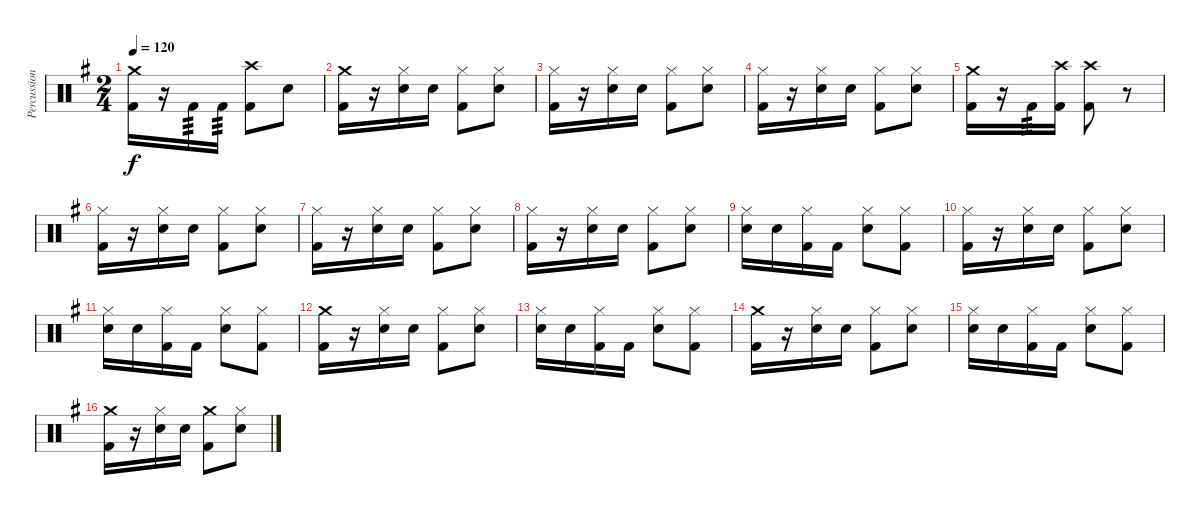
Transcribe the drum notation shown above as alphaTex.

\track ("Percussion" "Percussion") {instrument percussion}
\staff {score}
\articulation defaults
\ts (2 4)
\tempo 120
\clef neutral
\ks g
("Crash medium (hit)" "Kick (hit) 2").16{dy f} r.16 "Kick (hit) 2".16{tp 3} "Kick (hit) 2".16{tp 3} ("Crash high (hit)" "Kick (hit) 2").8 "Snare (hit) 2".8 |
("Crash medium (hit)" "Kick (hit) 2").16 r.16 ("Hi-Hat (closed)" "Snare (hit) 2").16 "Snare (hit) 2".16 ("Hi-Hat (closed)" "Kick (hit) 2").8 ("Hi-Hat (closed)" "Snare (hit) 2").8 |
("Hi-Hat (closed)" "Kick (hit) 2").16 r.16 ("Hi-Hat (closed)" "Snare (hit) 2").16 "Snare (hit) 2".16 ("Hi-Hat (closed)" "Kick (hit) 2").8 ("Hi-Hat (closed)" "Snare (hit) 2").8 |
("Hi-Hat (closed)" "Kick (hit) 2").16 r.16 ("Hi-Hat (closed)" "Snare (hit) 2").16 "Snare (hit) 2".16 ("Hi-Hat (closed)" "Kick (hit) 2").8 ("Hi-Hat (closed)" "Snare (hit) 2").8 |
("Crash medium (hit)" "Kick (hit) 2").16 r.16 "Kick (hit) 2".16{tp 3} ("Crash high (hit)" "Kick (hit) 2").16 ("Crash high (hit)" "Kick (hit) 2").8 r.8 |
("Hi-Hat (closed)" "Kick (hit) 2").16 r.16 ("Hi-Hat (closed)" "Snare (hit) 2").16 "Snare (hit) 2".16 ("Hi-Hat (closed)" "Kick (hit) 2").8 ("Hi-Hat (closed)" "Snare (hit) 2").8 |
("Hi-Hat (closed)" "Kick (hit) 2").16 r.16 ("Hi-Hat (closed)" "Snare (hit) 2").16 "Snare (hit) 2".16 ("Hi-Hat (closed)" "Kick (hit) 2").8 ("Hi-Hat (closed)" "Snare (hit) 2").8 |
("Hi-Hat (closed)" "Kick (hit) 2").16 r.16 ("Hi-Hat (closed)" "Snare (hit) 2").16 "Snare (hit) 2".16 ("Hi-Hat (closed)" "Kick (hit) 2").8 ("Hi-Hat (closed)" "Snare (hit) 2").8 |
("Hi-Hat (closed)" "Snare (hit) 2").16 "Snare (hit) 2".16 ("Hi-Hat (closed)" "Kick (hit) 2").16 "Kick (hit) 2".16 ("Hi-Hat (closed)" "Snare (hit) 2").8 ("Hi-Hat (closed)" "Kick (hit) 2").8 |
("Hi-Hat (closed)" "Kick (hit) 2").16 r.16 ("Hi-Hat (closed)" "Snare (hit) 2").16 "Snare (hit) 2".16 ("Hi-Hat (closed)" "Kick (hit) 2").8 ("Hi-Hat (closed)" "Snare (hit) 2").8 |
("Hi-Hat (closed)" "Snare (hit) 2").16 "Snare (hit) 2".16 ("Hi-Hat (closed)" "Kick (hit) 2").16 "Kick (hit) 2".16 ("Hi-Hat (closed)" "Snare (hit) 2").8 ("Hi-Hat (closed)" "Kick (hit) 2").8 |
("Crash medium (hit)" "Kick (hit) 2").16 r.16 ("Hi-Hat (closed)" "Snare (hit) 2").16 "Snare (hit) 2".16 ("Hi-Hat (closed)" "Kick (hit) 2").8 ("Hi-Hat (closed)" "Snare (hit) 2").8 |
("Hi-Hat (closed)" "Snare (hit) 2").16 "Snare (hit) 2".16 ("Hi-Hat (closed)" "Kick (hit) 2").16 "Kick (hit) 2".16 ("Hi-Hat (closed)" "Snare (hit) 2").8 ("Hi-Hat (closed)" "Kick (hit) 2").8 |
("Crash medium (hit)" "Kick (hit) 2").16 r.16 ("Hi-Hat (closed)" "Snare (hit) 2").16 "Snare (hit) 2".16 ("Hi-Hat (closed)" "Kick (hit) 2").8 ("Hi-Hat (closed)" "Snare (hit) 2").8 |
("Hi-Hat (closed)" "Snare (hit) 2").16 "Snare (hit) 2".16 ("Hi-Hat (closed)" "Kick (hit) 2").16 "Kick (hit) 2".16 ("Hi-Hat (closed)" "Snare (hit) 2").8 ("Hi-Hat (closed)" "Kick (hit) 2").8 |
("Crash medium (hit)" "Kick (hit) 2").16 r.16 ("Hi-Hat (closed)" "Snare (hit) 2").16 "Snare (hit) 2".16 ("Crash medium (hit)" "Kick (hit) 2").8 ("Hi-Hat (closed)" "Snare (hit) 2").8
